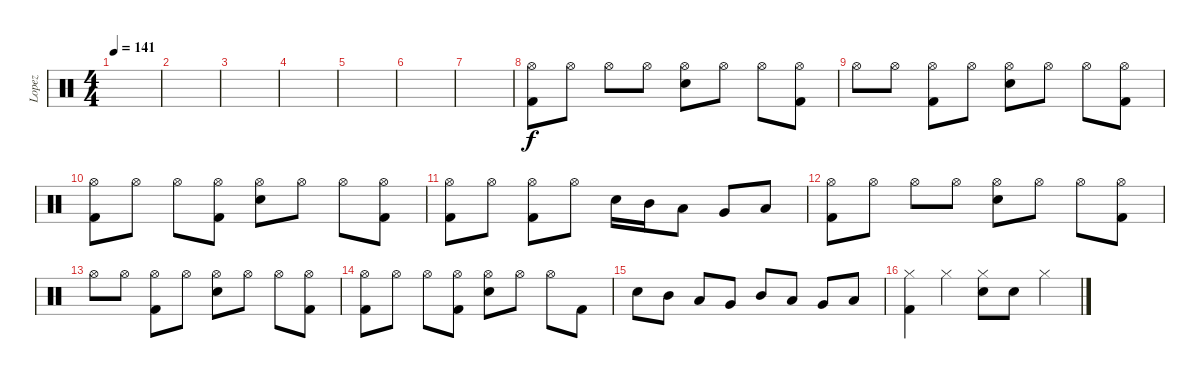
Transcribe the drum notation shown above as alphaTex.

\track ("Lopez" "Lopez") {instrument percussion}
\staff {score}
\articulation defaults
\ts (4 4)
\tempo 141
\clef neutral
\ks c
|
|
|
|
|
|
|
("Hi-Hat (open)" "Kick (hit) 2").8 "Hi-Hat (open)".8 "Hi-Hat (open)".8 "Hi-Hat (open)".8 ("Hi-Hat (open)" "Electric Snare (hit)").8 "Hi-Hat (open)".8 "Hi-Hat (open)".8 ("Hi-Hat (open)" "Kick (hit) 2").8 |
"Hi-Hat (open)".8 "Hi-Hat (open)".8 ("Hi-Hat (open)" "Kick (hit) 2").8 "Hi-Hat (open)".8 ("Hi-Hat (open)" "Electric Snare (hit)").8 "Hi-Hat (open)".8 "Hi-Hat (open)".8 ("Hi-Hat (open)" "Kick (hit) 2").8 |
("Hi-Hat (open)" "Kick (hit) 2").8 "Hi-Hat (open)".8 "Hi-Hat (open)".8 ("Hi-Hat (open)" "Kick (hit) 2").8 ("Hi-Hat (open)" "Electric Snare (hit)").8 "Hi-Hat (open)".8 "Hi-Hat (open)".8 ("Hi-Hat (open)" "Kick (hit) 2").8 |
("Hi-Hat (open)" "Kick (hit) 2").8 "Hi-Hat (open)".8 ("Hi-Hat (open)" "Kick (hit) 2").8 "Hi-Hat (open)".8 "Electric Snare (hit)".16 "Mid Tom (hit)".16 "Low Tom (hit)".8 "Very Low Tom (hit)".8 "Low Floor Tom (hit)".8 |
("Hi-Hat (open)" "Kick (hit) 2").8 "Hi-Hat (open)".8 "Hi-Hat (open)".8 "Hi-Hat (open)".8 ("Hi-Hat (open)" "Electric Snare (hit)").8 "Hi-Hat (open)".8 "Hi-Hat (open)".8 ("Hi-Hat (open)" "Kick (hit) 2").8 |
"Hi-Hat (open)".8 "Hi-Hat (open)".8 ("Hi-Hat (open)" "Kick (hit) 2").8 "Hi-Hat (open)".8 ("Hi-Hat (open)" "Electric Snare (hit)").8 "Hi-Hat (open)".8 "Hi-Hat (open)".8 ("Hi-Hat (open)" "Kick (hit) 2").8 |
("Hi-Hat (open)" "Kick (hit) 2").8 "Hi-Hat (open)".8 "Hi-Hat (open)".8 ("Hi-Hat (open)" "Kick (hit) 2").8 ("Hi-Hat (open)" "Electric Snare (hit)").8 "Hi-Hat (open)".8 "Hi-Hat (open)".8 "Kick (hit) 2".8 |
"Electric Snare (hit)".8 "Mid Tom (hit)".8 "Low Tom (hit)".8 "Very Low Tom (hit)".8 "Mid Tom (hit)".8 "Low Tom (hit)".8 "Very Low Tom (hit)".8 "Low Floor Tom (hit)".8 |
("Hi-Hat (closed)" "Kick (hit) 2").4 "Hi-Hat (closed)".4 ("Hi-Hat (closed)" "Electric Snare (hit)").8 "Electric Snare (hit)".8 "Hi-Hat (closed)".4
